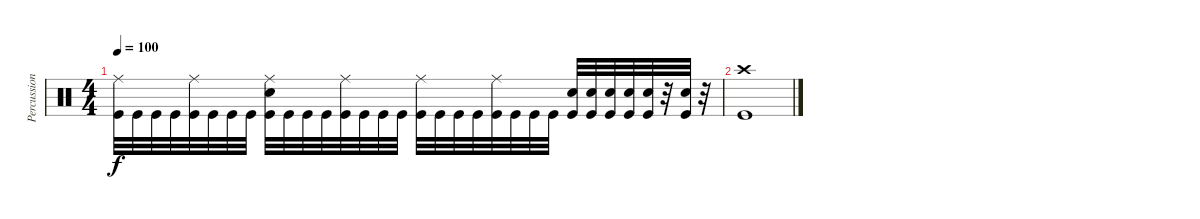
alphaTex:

\track ("Percussion" "Percussion") {instrument percussion}
\staff {score}
\articulation defaults
\ts (4 4)
\tempo 100
\clef neutral
\ks c
("Ride (middle)" "Kick (hit)").32{dy f} "Kick (hit)".32 "Kick (hit)".32 "Kick (hit)".32 ("Ride (middle)" "Kick (hit)").32 "Kick (hit)".32 "Kick (hit)".32 "Kick (hit)".32 ("Ride (middle)" "Electric Snare (hit)" "Kick (hit)").32 "Kick (hit)".32 "Kick (hit)".32 "Kick (hit)".32 ("Ride (middle)" "Kick (hit)").32 "Kick (hit)".32 "Kick (hit)".32 "Kick (hit)".32 ("Ride (middle)" "Kick (hit)").32 "Kick (hit)".32 "Kick (hit)".32 "Kick (hit)".32 ("Ride (middle)" "Kick (hit)").32 "Kick (hit)".32 "Kick (hit)".32 "Kick (hit)".32 ("Electric Snare (hit)" "Kick (hit)").32 ("Electric Snare (hit)" "Kick (hit)").32 ("Electric Snare (hit)" "Kick (hit)").32 ("Electric Snare (hit)" "Kick (hit)").32 ("Electric Snare (hit)" "Kick (hit)").32 r.32 ("Electric Snare (hit)" "Kick (hit)").32 r.32 |
("Crash high (hit)" "Kick (hit)").1
